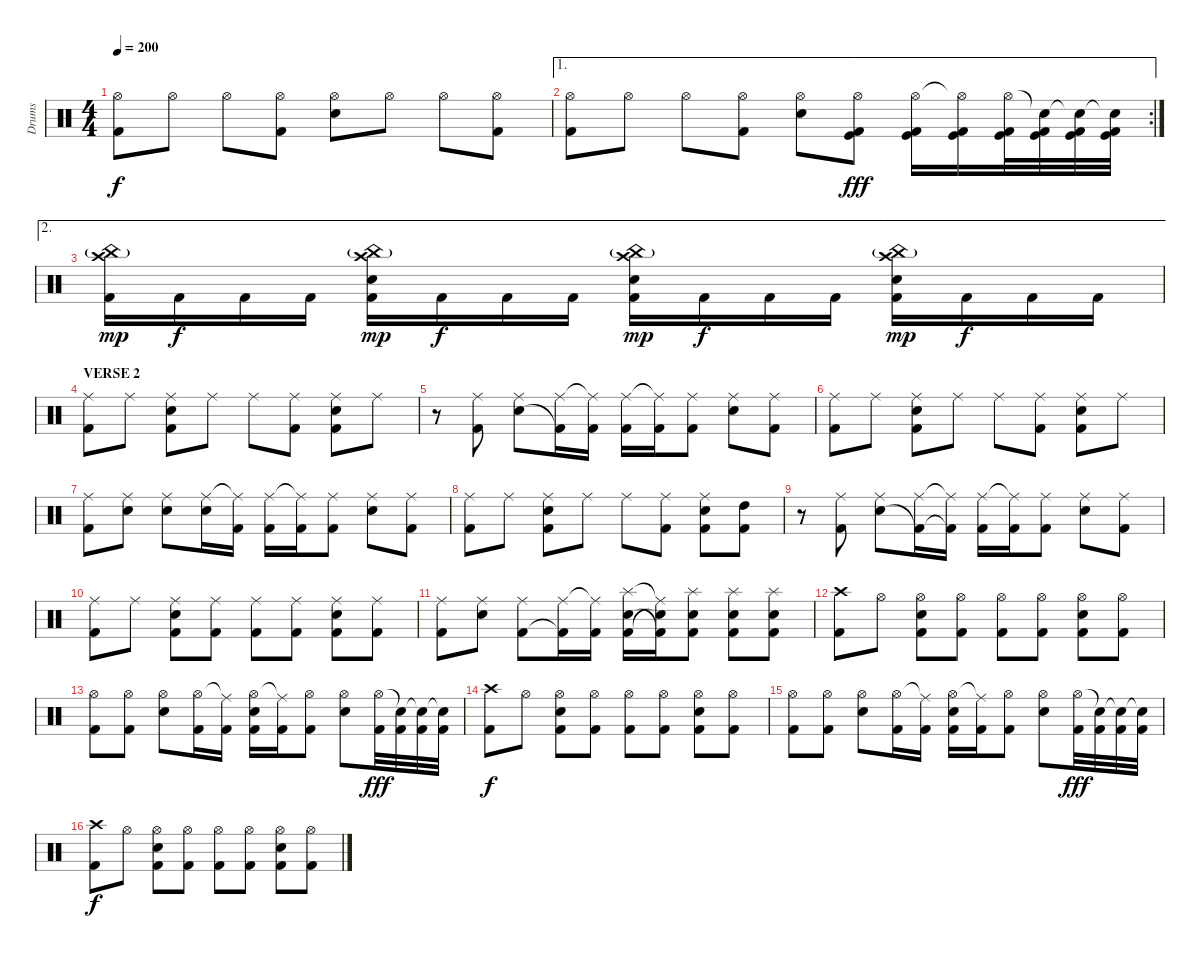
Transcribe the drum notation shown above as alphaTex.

\track ("Drums" "Drums") {instrument percussion}
\staff {score}
\articulation defaults
\ts (4 4)
\tempo 200
\clef neutral
\ks c
("Hi-Hat (open)" "Kick (hit) 2").8{dy f} "Hi-Hat (open)".8 "Hi-Hat (open)".8 ("Hi-Hat (open)" "Kick (hit) 2").8 ("Hi-Hat (open)" "Electric Snare (hit)").8 "Hi-Hat (open)".8 "Hi-Hat (open)".8 ("Hi-Hat (open)" "Kick (hit) 2").8 |
\ae 1
\rc 2
("Hi-Hat (open)" "Kick (hit) 2").8 "Hi-Hat (open)".8 "Hi-Hat (open)".8 ("Hi-Hat (open)" "Kick (hit) 2").8 ("Hi-Hat (open)" "Electric Snare (hit)").8 ("Hi-Hat (open)" "Kick (hit)" "Kick (hit) 2").8{dy fff} ("Hi-Hat (open)" "Kick (hit)" "Kick (hit) 2").16 ("Hi-Hat (open)"{t} "Kick (hit)" "Kick (hit) 2").16 ("Hi-Hat (open)" "Kick (hit)" "Kick (hit) 2").32 ("Snare (hit)"{t} "Kick (hit)" "Kick (hit) 2").32 ("Snare (hit)"{t} "Kick (hit)" "Kick (hit) 2").32 ("Snare (hit)"{t} "Kick (hit)" "Kick (hit) 2").32 |
\ae 2
("China (hit)"{g} "Crash high (hit)" "Kick (hit) 2").16{dy mp} "Kick (hit) 2".16{dy f} "Kick (hit) 2".16 "Kick (hit) 2".16 ("China (hit)"{g} "Crash high (hit)" "Electric Snare (hit)" "Kick (hit) 2").16{dy mp} "Kick (hit) 2".16{dy f} "Kick (hit) 2".16 "Kick (hit) 2".16 ("China (hit)"{g} "Crash high (hit)" "Electric Snare (hit)" "Kick (hit) 2").16{dy mp} "Kick (hit) 2".16{dy f} "Kick (hit) 2".16 "Kick (hit) 2".16 ("China (hit)"{g} "Crash high (hit)" "Electric Snare (hit)" "Kick (hit) 2").16{dy mp} "Kick (hit) 2".16{dy f} "Kick (hit) 2".16 "Kick (hit) 2".16 |
\section ("" "VERSE 2")
("Ride (middle)" "Kick (hit) 2").8 "Ride (middle)".8 ("Ride (middle)" "Electric Snare (hit)" "Kick (hit) 2").8 "Ride (middle)".8 "Ride (middle)".8 ("Ride (middle)" "Kick (hit) 2").8 ("Ride (middle)" "Electric Snare (hit)" "Kick (hit) 2").8 "Ride (middle)".8 |
r.8 ("Ride (middle)" "Kick (hit) 2").8 ("Ride (middle)" "Electric Snare (hit)").8 ("Ride (middle)" "Kick (hit) 2"{t}).16 ("Ride (middle)"{t} "Kick (hit) 2").16 ("Ride (middle)" "Kick (hit) 2").16 ("Ride (middle)"{t} "Kick (hit) 2").16 ("Ride (middle)" "Kick (hit) 2").8 ("Ride (middle)" "Electric Snare (hit)").8 ("Ride (middle)" "Kick (hit) 2").8 |
("Ride (middle)" "Kick (hit) 2").8 "Ride (middle)".8 ("Ride (middle)" "Electric Snare (hit)" "Kick (hit) 2").8 "Ride (middle)".8 "Ride (middle)".8 ("Ride (middle)" "Kick (hit) 2").8 ("Ride (middle)" "Electric Snare (hit)" "Kick (hit) 2").8 "Ride (middle)".8 |
("Ride (middle)" "Kick (hit) 2").8 ("Ride (middle)" "Electric Snare (hit)").8 ("Ride (middle)" "Electric Snare (hit)").8 ("Ride (middle)" "Electric Snare (hit)").16 ("Ride (middle)"{t} "Kick (hit) 2").16 ("Ride (middle)" "Kick (hit) 2").16 ("Ride (middle)"{t} "Kick (hit) 2").16 ("Ride (middle)" "Kick (hit) 2").8 ("Ride (middle)" "Electric Snare (hit)").8 ("Ride (middle)" "Kick (hit) 2").8 |
("Ride (middle)" "Kick (hit) 2").8 "Ride (middle)".8 ("Ride (middle)" "Electric Snare (hit)" "Kick (hit) 2").8 "Ride (middle)".8 "Ride (middle)".8 ("Ride (middle)" "Kick (hit) 2").8 ("Ride (middle)" "Electric Snare (hit)" "Kick (hit) 2").8 ("High Tom (hit)" "Kick (hit) 2").8 |
r.8 ("Ride (middle)" "Kick (hit) 2").8 ("Ride (middle)" "Electric Snare (hit)").8 ("Ride (middle)" "Kick (hit) 2"{t}).16 ("Ride (middle)"{t} "Kick (hit) 2"{t}).16 ("Ride (middle)" "Kick (hit) 2").16 ("Ride (middle)"{t} "Kick (hit) 2").16 ("Ride (middle)" "Kick (hit) 2").8 ("Ride (middle)" "Electric Snare (hit)").8 ("Ride (middle)" "Kick (hit) 2").8 |
("Ride (middle)" "Kick (hit) 2").8 "Ride (middle)".8 ("Ride (middle)" "Electric Snare (hit)" "Kick (hit) 2").8 ("Ride (middle)" "Kick (hit) 2").8 ("Ride (middle)" "Kick (hit) 2").8 ("Ride (middle)" "Kick (hit) 2").8 ("Ride (middle)" "Electric Snare (hit)" "Kick (hit) 2").8 ("Ride (middle)" "Kick (hit) 2").8 |
("Ride (middle)" "Kick (hit) 2").8 ("Ride (middle)" "Electric Snare (hit)").8 ("Ride (middle)" "Kick (hit) 2").8 ("Ride (middle)" "Kick (hit) 2"{t}).16 ("Ride (middle)"{t} "Kick (hit) 2").16 ("Splash (hit)" "Kick (hit) 2" "Electric Snare (hit)").16 ("Ride (middle)"{t} "Snare (hit)"{t} "Kick (hit) 2"{t}).16 ("Splash (hit)" "Kick (hit) 2" "Electric Snare (hit)").8 ("Splash (hit)" "Kick (hit) 2" "Electric Snare (hit)").8 ("Splash (hit)" "Kick (hit) 2" "Electric Snare (hit)").8 |
("Crash high (hit)" "Kick (hit) 2").8 "Hi-Hat (open)".8 ("Hi-Hat (open)" "Electric Snare (hit)" "Kick (hit) 2").8 ("Hi-Hat (open)" "Kick (hit) 2").8 ("Hi-Hat (open)" "Kick (hit) 2").8 ("Hi-Hat (open)" "Kick (hit) 2").8 ("Hi-Hat (open)" "Electric Snare (hit)" "Kick (hit) 2").8 ("Hi-Hat (open)" "Kick (hit) 2").8 |
("Hi-Hat (open)" "Kick (hit) 2").8 ("Hi-Hat (open)" "Kick (hit) 2").8 ("Hi-Hat (open)" "Electric Snare (hit)").8 ("Hi-Hat (open)" "Kick (hit) 2").16 ("Ride (middle)"{t} "Kick (hit) 2").16 ("Hi-Hat (open)" "Electric Snare (hit)" "Kick (hit) 2").16 ("Ride (middle)"{t} "Kick (hit) 2").16 ("Hi-Hat (open)" "Kick (hit) 2").8 ("Hi-Hat (open)" "Electric Snare (hit)").8 ("Hi-Hat (open)" "Kick (hit) 2").32{dy fff} ("Snare (hit)"{t} "Kick (hit) 2").32 ("Snare (hit)"{t} "Kick (hit) 2").32 ("Snare (hit)"{t} "Kick (hit) 2").32 |
("Crash high (hit)" "Kick (hit) 2").8{dy f} "Hi-Hat (open)".8 ("Hi-Hat (open)" "Electric Snare (hit)" "Kick (hit) 2").8 ("Hi-Hat (open)" "Kick (hit) 2").8 ("Hi-Hat (open)" "Kick (hit) 2").8 ("Hi-Hat (open)" "Kick (hit) 2").8 ("Hi-Hat (open)" "Electric Snare (hit)" "Kick (hit) 2").8 ("Hi-Hat (open)" "Kick (hit) 2").8 |
("Hi-Hat (open)" "Kick (hit) 2").8 ("Hi-Hat (open)" "Kick (hit) 2").8 ("Hi-Hat (open)" "Electric Snare (hit)").8 ("Hi-Hat (open)" "Kick (hit) 2").16 ("Ride (middle)"{t} "Kick (hit) 2").16 ("Hi-Hat (open)" "Electric Snare (hit)" "Kick (hit) 2").16 ("Ride (middle)"{t} "Kick (hit) 2").16 ("Hi-Hat (open)" "Kick (hit) 2").8 ("Hi-Hat (open)" "Electric Snare (hit)").8 ("Hi-Hat (open)" "Kick (hit) 2").32{dy fff} ("Snare (hit)"{t} "Kick (hit) 2").32 ("Snare (hit)"{t} "Kick (hit) 2").32 ("Snare (hit)"{t} "Kick (hit) 2").32 |
("Crash high (hit)" "Kick (hit) 2").8{dy f} "Hi-Hat (open)".8 ("Hi-Hat (open)" "Electric Snare (hit)" "Kick (hit) 2").8 ("Hi-Hat (open)" "Kick (hit) 2").8 ("Hi-Hat (open)" "Kick (hit) 2").8 ("Hi-Hat (open)" "Kick (hit) 2").8 ("Hi-Hat (open)" "Electric Snare (hit)" "Kick (hit) 2").8 ("Hi-Hat (open)" "Kick (hit) 2").8
